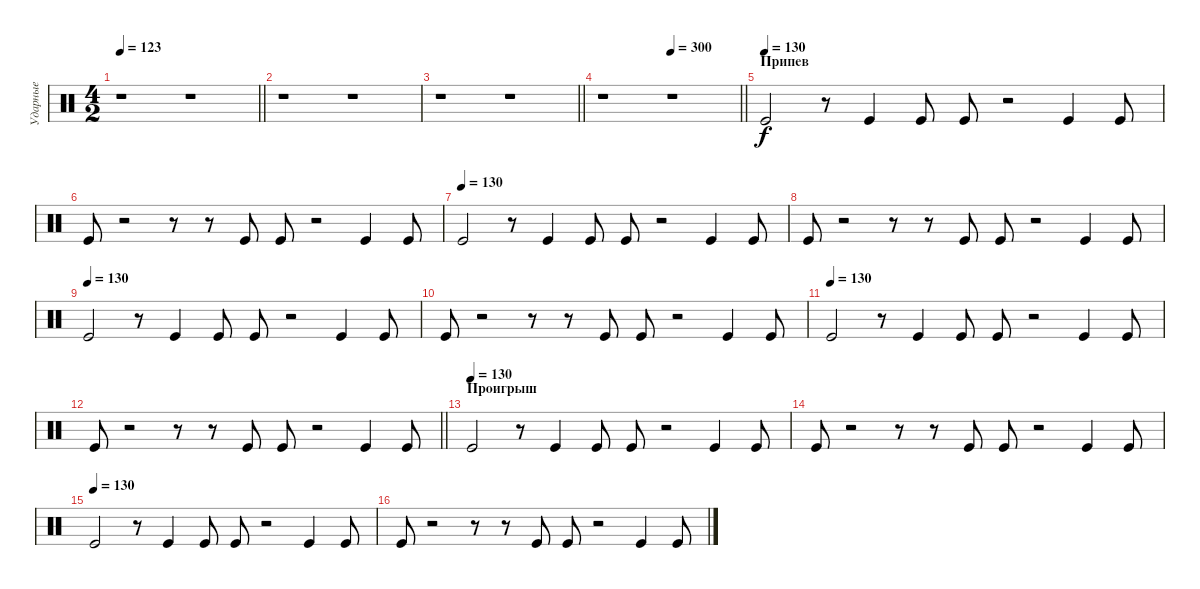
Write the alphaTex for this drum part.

\track ("Ударные" "Ударные") {instrument percussion}
\staff {score}
\articulation defaults
\ts (4 2)
\tempo 123
\clef neutral
\barLineRight lightlight
\ks c
r.1{dy f} r.1 |
r.1 r.1 |
\barLineRight lightlight
r.1 r.1 |
\tempo (300 0.5)
\barLineRight lightlight
r.1 r.1 |
\section ("" "Припев")
\tempo (130)
"Kick (hit)".2 r.8 "Kick (hit)".4 "Kick (hit)".8 "Kick (hit)".8 r.2 "Kick (hit)".4 "Kick (hit)".8 |
"Kick (hit)".8 r.2 r.8 r.8 "Kick (hit)".8 "Kick (hit)".8 r.2 "Kick (hit)".4 "Kick (hit)".8 |
\tempo (130)
"Kick (hit)".2 r.8 "Kick (hit)".4 "Kick (hit)".8 "Kick (hit)".8 r.2 "Kick (hit)".4 "Kick (hit)".8 |
"Kick (hit)".8 r.2 r.8 r.8 "Kick (hit)".8 "Kick (hit)".8 r.2 "Kick (hit)".4 "Kick (hit)".8 |
\tempo (130)
"Kick (hit)".2 r.8 "Kick (hit)".4 "Kick (hit)".8 "Kick (hit)".8 r.2 "Kick (hit)".4 "Kick (hit)".8 |
"Kick (hit)".8 r.2 r.8 r.8 "Kick (hit)".8 "Kick (hit)".8 r.2 "Kick (hit)".4 "Kick (hit)".8 |
\tempo (130)
"Kick (hit)".2 r.8 "Kick (hit)".4 "Kick (hit)".8 "Kick (hit)".8 r.2 "Kick (hit)".4 "Kick (hit)".8 |
\barLineRight lightlight "Kick (hit)".8
r.2 r.8 r.8 "Kick (hit)".8 "Kick (hit)".8 r.2 "Kick (hit)".4 "Kick (hit)".8 |
\section ("" "Проигрыш")
\tempo (130)
"Kick (hit)".2 r.8 "Kick (hit)".4 "Kick (hit)".8 "Kick (hit)".8 r.2 "Kick (hit)".4 "Kick (hit)".8 |
"Kick (hit)".8 r.2 r.8 r.8 "Kick (hit)".8 "Kick (hit)".8 r.2 "Kick (hit)".4 "Kick (hit)".8 |
\tempo (130)
"Kick (hit)".2 r.8 "Kick (hit)".4 "Kick (hit)".8 "Kick (hit)".8 r.2 "Kick (hit)".4 "Kick (hit)".8 |
"Kick (hit)".8 r.2 r.8 r.8 "Kick (hit)".8 "Kick (hit)".8 r.2 "Kick (hit)".4 "Kick (hit)".8
